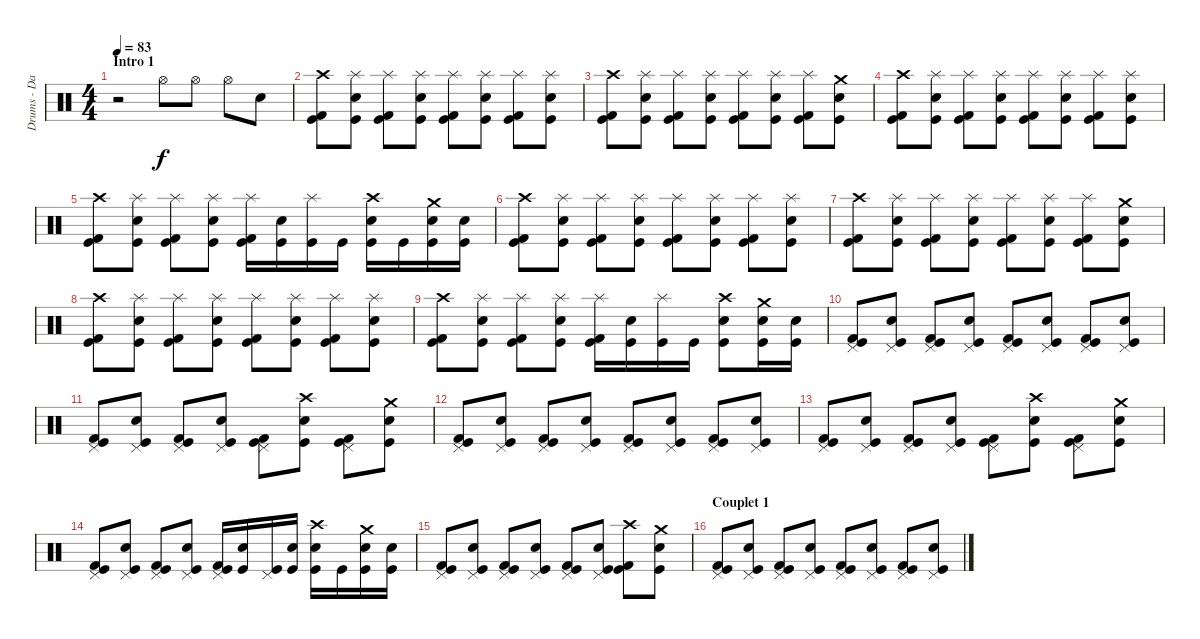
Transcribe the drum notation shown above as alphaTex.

\track ("Drums - Daniel Zimmermann" "Drums - Da") {instrument percussion}
\staff {score}
\articulation defaults
\ts (4 4)
\section ("" "Intro 1")
\tempo 83
\clef neutral
\ks c
r.2{dy f} "Hi-Hat (open)".8 "Hi-Hat (open)".8 "Hi-Hat (open)".8 "Electric Snare (hit)".8 |
("Kick (hit)" "Kick (hit) 2" "Crash high (hit)").8 ("Kick (hit)" "Electric Snare (hit)" "Splash (hit)").8 ("Kick (hit)" "Kick (hit) 2" "Splash (hit)").8 ("Kick (hit)" "Electric Snare (hit)" "Splash (hit)").8 ("Kick (hit)" "Kick (hit) 2" "Splash (hit)").8 ("Kick (hit)" "Electric Snare (hit)" "Splash (hit)").8 ("Kick (hit)" "Kick (hit) 2" "Splash (hit)").8 ("Kick (hit)" "Electric Snare (hit)" "Splash (hit)").8 |
("Kick (hit)" "Kick (hit) 2" "Crash high (hit)").8 ("Kick (hit)" "Electric Snare (hit)" "Splash (hit)").8 ("Kick (hit)" "Kick (hit) 2" "Splash (hit)").8 ("Kick (hit)" "Electric Snare (hit)" "Splash (hit)").8 ("Kick (hit)" "Kick (hit) 2" "Splash (hit)").8 ("Kick (hit)" "Electric Snare (hit)" "Splash (hit)").8 ("Kick (hit)" "Kick (hit) 2" "Splash (hit)").8 ("Kick (hit)" "Electric Snare (hit)" "Crash medium (hit)").8 |
("Kick (hit)" "Kick (hit) 2" "Crash high (hit)").8 ("Kick (hit)" "Electric Snare (hit)" "Splash (hit)").8 ("Kick (hit)" "Kick (hit) 2" "Splash (hit)").8 ("Kick (hit)" "Electric Snare (hit)" "Splash (hit)").8 ("Kick (hit)" "Kick (hit) 2" "Splash (hit)").8 ("Kick (hit)" "Electric Snare (hit)" "Splash (hit)").8 ("Kick (hit)" "Kick (hit) 2" "Splash (hit)").8 ("Kick (hit)" "Electric Snare (hit)" "Splash (hit)").8 |
("Kick (hit)" "Kick (hit) 2" "Crash high (hit)").8 ("Kick (hit)" "Electric Snare (hit)" "Splash (hit)").8 ("Kick (hit)" "Kick (hit) 2" "Splash (hit)").8 ("Kick (hit)" "Electric Snare (hit)" "Splash (hit)").8 ("Kick (hit)" "Kick (hit) 2" "Splash (hit)").16 ("Kick (hit)" "Electric Snare (hit)").16 ("Kick (hit)" "Splash (hit)").16 "Kick (hit)".16 ("Kick (hit)" "Electric Snare (hit)" "Crash high (hit)").16 "Kick (hit)".16 ("Kick (hit)" "Electric Snare (hit)" "Crash medium (hit)").16 ("Kick (hit)" "Electric Snare (hit)").16 |
("Kick (hit)" "Kick (hit) 2" "Crash high (hit)").8 ("Kick (hit)" "Electric Snare (hit)" "Splash (hit)").8 ("Kick (hit)" "Kick (hit) 2" "Splash (hit)").8 ("Kick (hit)" "Electric Snare (hit)" "Splash (hit)").8 ("Kick (hit)" "Kick (hit) 2" "Splash (hit)").8 ("Kick (hit)" "Electric Snare (hit)" "Splash (hit)").8 ("Kick (hit)" "Kick (hit) 2" "Splash (hit)").8 ("Kick (hit)" "Electric Snare (hit)" "Splash (hit)").8 |
("Kick (hit)" "Kick (hit) 2" "Crash high (hit)").8 ("Kick (hit)" "Electric Snare (hit)" "Splash (hit)").8 ("Kick (hit)" "Kick (hit) 2" "Splash (hit)").8 ("Kick (hit)" "Electric Snare (hit)" "Splash (hit)").8 ("Kick (hit)" "Kick (hit) 2" "Splash (hit)").8 ("Kick (hit)" "Electric Snare (hit)" "Splash (hit)").8 ("Kick (hit)" "Kick (hit) 2" "Splash (hit)").8 ("Kick (hit)" "Electric Snare (hit)" "Crash medium (hit)").8 |
("Kick (hit)" "Kick (hit) 2" "Crash high (hit)").8 ("Kick (hit)" "Electric Snare (hit)" "Splash (hit)").8 ("Kick (hit)" "Kick (hit) 2" "Splash (hit)").8 ("Kick (hit)" "Electric Snare (hit)" "Splash (hit)").8 ("Kick (hit)" "Kick (hit) 2" "Splash (hit)").8 ("Kick (hit)" "Electric Snare (hit)" "Splash (hit)").8 ("Kick (hit)" "Kick (hit) 2" "Splash (hit)").8 ("Kick (hit)" "Electric Snare (hit)" "Splash (hit)").8 |
("Kick (hit)" "Kick (hit) 2" "Crash high (hit)").8 ("Kick (hit)" "Electric Snare (hit)" "Splash (hit)").8 ("Kick (hit)" "Kick (hit) 2" "Splash (hit)").8 ("Kick (hit)" "Electric Snare (hit)" "Splash (hit)").8 ("Kick (hit)" "Kick (hit) 2" "Splash (hit)").16 ("Kick (hit)" "Electric Snare (hit)").16 ("Kick (hit)" "Splash (hit)").16 "Kick (hit)".16 ("Kick (hit)" "Electric Snare (hit)" "Crash high (hit)").8 ("Kick (hit)" "Electric Snare (hit)" "Crash medium (hit)").16 ("Kick (hit)" "Electric Snare (hit)").16 |
("Kick (hit)" "Kick (hit) 2" "Pedal Hi-Hat (hit)").8 ("Kick (hit)" "Electric Snare (hit)" "Pedal Hi-Hat (hit)").8 ("Kick (hit)" "Kick (hit) 2" "Pedal Hi-Hat (hit)").8 ("Kick (hit)" "Electric Snare (hit)" "Pedal Hi-Hat (hit)").8 ("Kick (hit)" "Kick (hit) 2" "Pedal Hi-Hat (hit)").8 ("Kick (hit)" "Electric Snare (hit)" "Pedal Hi-Hat (hit)").8 ("Kick (hit)" "Kick (hit) 2" "Pedal Hi-Hat (hit)").8 ("Kick (hit)" "Electric Snare (hit)" "Pedal Hi-Hat (hit)").8 |
("Kick (hit)" "Kick (hit) 2" "Pedal Hi-Hat (hit)").8 ("Kick (hit)" "Electric Snare (hit)" "Pedal Hi-Hat (hit)").8 ("Kick (hit)" "Kick (hit) 2" "Pedal Hi-Hat (hit)").8 ("Kick (hit)" "Electric Snare (hit)" "Pedal Hi-Hat (hit)").8 ("Kick (hit)" "Kick (hit) 2" "Pedal Hi-Hat (hit)").8 ("Kick (hit)" "Electric Snare (hit)" "Crash high (hit)").8 ("Kick (hit)" "Kick (hit) 2" "Pedal Hi-Hat (hit)").8 ("Kick (hit)" "Electric Snare (hit)" "Crash medium (hit)").8 |
("Kick (hit)" "Kick (hit) 2" "Pedal Hi-Hat (hit)").8 ("Kick (hit)" "Electric Snare (hit)" "Pedal Hi-Hat (hit)").8 ("Kick (hit)" "Kick (hit) 2" "Pedal Hi-Hat (hit)").8 ("Kick (hit)" "Electric Snare (hit)" "Pedal Hi-Hat (hit)").8 ("Kick (hit)" "Kick (hit) 2" "Pedal Hi-Hat (hit)").8 ("Kick (hit)" "Electric Snare (hit)" "Pedal Hi-Hat (hit)").8 ("Kick (hit)" "Kick (hit) 2" "Pedal Hi-Hat (hit)").8 ("Kick (hit)" "Electric Snare (hit)" "Pedal Hi-Hat (hit)").8 |
("Kick (hit)" "Kick (hit) 2" "Pedal Hi-Hat (hit)").8 ("Kick (hit)" "Electric Snare (hit)" "Pedal Hi-Hat (hit)").8 ("Kick (hit)" "Kick (hit) 2" "Pedal Hi-Hat (hit)").8 ("Kick (hit)" "Electric Snare (hit)" "Pedal Hi-Hat (hit)").8 ("Kick (hit)" "Kick (hit) 2" "Pedal Hi-Hat (hit)").8 ("Kick (hit)" "Electric Snare (hit)" "Crash high (hit)").8 ("Kick (hit)" "Kick (hit) 2" "Pedal Hi-Hat (hit)").8 ("Kick (hit)" "Electric Snare (hit)" "Crash medium (hit)").8 |
("Kick (hit)" "Kick (hit) 2" "Pedal Hi-Hat (hit)").8 ("Kick (hit)" "Electric Snare (hit)" "Pedal Hi-Hat (hit)").8 ("Kick (hit)" "Kick (hit) 2" "Pedal Hi-Hat (hit)").8 ("Kick (hit)" "Electric Snare (hit)" "Pedal Hi-Hat (hit)").8 ("Kick (hit)" "Kick (hit) 2" "Pedal Hi-Hat (hit)").16 ("Kick (hit)" "Electric Snare (hit)").16 ("Kick (hit)" "Pedal Hi-Hat (hit)").16 ("Kick (hit)" "Electric Snare (hit)").16 ("Kick (hit)" "Electric Snare (hit)" "Crash high (hit)").16 "Kick (hit)".16 ("Kick (hit)" "Electric Snare (hit)" "Crash medium (hit)").16 ("Kick (hit)" "Electric Snare (hit)").16 |
("Kick (hit)" "Kick (hit) 2" "Pedal Hi-Hat (hit)").8 ("Kick (hit)" "Electric Snare (hit)" "Pedal Hi-Hat (hit)").8 ("Kick (hit)" "Kick (hit) 2" "Pedal Hi-Hat (hit)").8 ("Kick (hit)" "Electric Snare (hit)" "Pedal Hi-Hat (hit)").8 ("Kick (hit)" "Kick (hit) 2" "Pedal Hi-Hat (hit)").8 ("Kick (hit)" "Electric Snare (hit)" "Pedal Hi-Hat (hit)").8 ("Kick (hit)" "Kick (hit) 2" "Crash high (hit)").8 ("Kick (hit)" "Electric Snare (hit)" "Crash medium (hit)").8 |
\section ("" "Couplet 1")
("Kick (hit)" "Kick (hit) 2" "Pedal Hi-Hat (hit)").8 ("Kick (hit)" "Electric Snare (hit)" "Pedal Hi-Hat (hit)").8 ("Kick (hit)" "Kick (hit) 2" "Pedal Hi-Hat (hit)").8 ("Kick (hit)" "Electric Snare (hit)" "Pedal Hi-Hat (hit)").8 ("Kick (hit)" "Kick (hit) 2" "Pedal Hi-Hat (hit)").8 ("Kick (hit)" "Electric Snare (hit)" "Pedal Hi-Hat (hit)").8 ("Kick (hit)" "Kick (hit) 2" "Pedal Hi-Hat (hit)").8 ("Kick (hit)" "Electric Snare (hit)" "Pedal Hi-Hat (hit)").8
